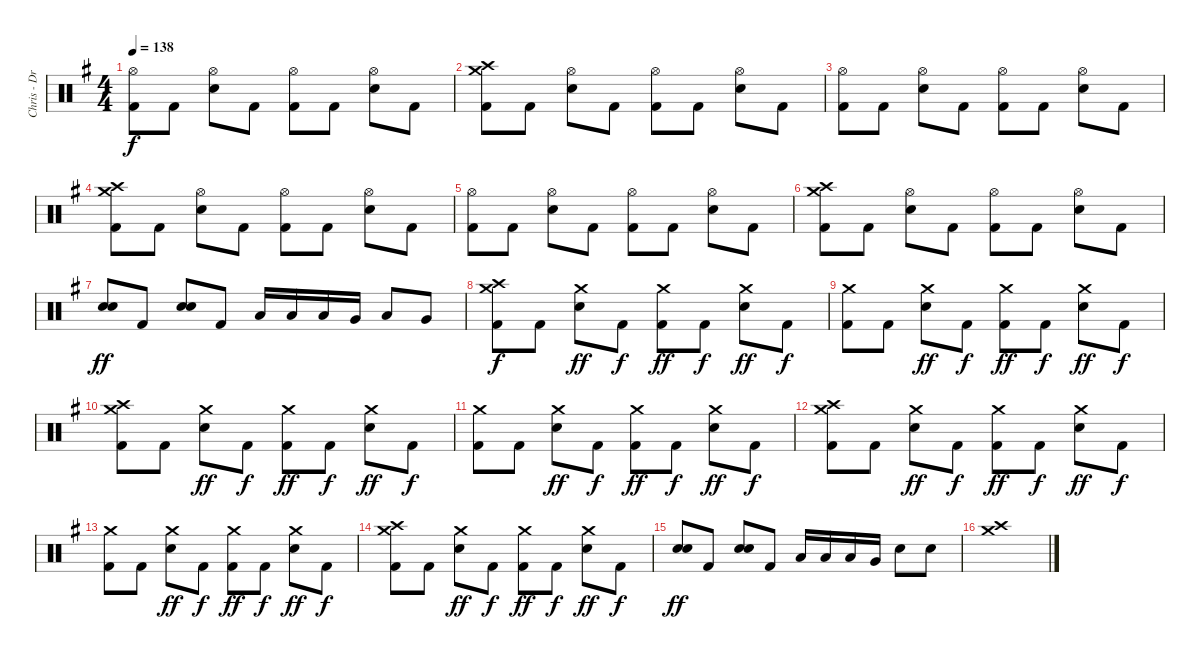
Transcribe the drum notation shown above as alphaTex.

\track ("Chris - Drums" "Chris - Dr") {instrument percussion}
\staff {score}
\articulation defaults
\ts (4 4)
\tempo 138
\clef neutral
\ks g
("Hi-Hat (open)" "Kick (hit) 2").8{dy f} "Kick (hit) 2".8 ("Hi-Hat (open)" "Electric Snare (hit)").8 "Kick (hit) 2".8 ("Hi-Hat (open)" "Kick (hit) 2").8 "Kick (hit) 2".8 ("Hi-Hat (open)" "Electric Snare (hit)").8 "Kick (hit) 2".8 |
("Crash medium (hit)" "Crash high (hit)" "Kick (hit) 2").8 "Kick (hit) 2".8 ("Hi-Hat (open)" "Electric Snare (hit)").8 "Kick (hit) 2".8 ("Hi-Hat (open)" "Kick (hit) 2").8 "Kick (hit) 2".8 ("Hi-Hat (open)" "Electric Snare (hit)").8 "Kick (hit) 2".8 |
("Hi-Hat (open)" "Kick (hit) 2").8 "Kick (hit) 2".8 ("Hi-Hat (open)" "Electric Snare (hit)").8 "Kick (hit) 2".8 ("Hi-Hat (open)" "Kick (hit) 2").8 "Kick (hit) 2".8 ("Hi-Hat (open)" "Electric Snare (hit)").8 "Kick (hit) 2".8 |
("Crash medium (hit)" "Crash high (hit)" "Kick (hit) 2").8 "Kick (hit) 2".8 ("Hi-Hat (open)" "Electric Snare (hit)").8 "Kick (hit) 2".8 ("Hi-Hat (open)" "Kick (hit) 2").8 "Kick (hit) 2".8 ("Hi-Hat (open)" "Electric Snare (hit)").8 "Kick (hit) 2".8 |
("Hi-Hat (open)" "Kick (hit) 2").8 "Kick (hit) 2".8 ("Hi-Hat (open)" "Electric Snare (hit)").8 "Kick (hit) 2".8 ("Hi-Hat (open)" "Kick (hit) 2").8 "Kick (hit) 2".8 ("Hi-Hat (open)" "Electric Snare (hit)").8 "Kick (hit) 2".8 |
("Crash medium (hit)" "Crash high (hit)" "Kick (hit) 2").8 "Kick (hit) 2".8 ("Hi-Hat (open)" "Electric Snare (hit)").8 "Kick (hit) 2".8 ("Hi-Hat (open)" "Kick (hit) 2").8 "Kick (hit) 2".8 ("Hi-Hat (open)" "Electric Snare (hit)").8 "Kick (hit) 2".8 |
("Snare (hit) 2" "Electric Snare (hit)").8{dy ff} "Kick (hit) 2".8 ("Snare (hit) 2" "Electric Snare (hit)").8 "Kick (hit) 2".8 "Low Tom (hit)".16 "Low Tom (hit)".16 "Low Tom (hit)".16 "Very Low Tom (hit)".16 "Low Tom (hit)".8 "Very Low Tom (hit)".8 |
("Crash medium (hit)" "Crash high (hit)" "Kick (hit) 2").8{dy f} "Kick (hit) 2".8 ("Crash medium (hit)" "Electric Snare (hit)").8{dy ff} "Kick (hit) 2".8{dy f} ("Crash medium (hit)" "Kick (hit) 2").8{dy ff} "Kick (hit) 2".8{dy f} ("Crash medium (hit)" "Electric Snare (hit)").8{dy ff} "Kick (hit) 2".8{dy f} |
("Crash medium (hit)" "Kick (hit) 2").8 "Kick (hit) 2".8 ("Crash medium (hit)" "Electric Snare (hit)").8{dy ff} "Kick (hit) 2".8{dy f} ("Crash medium (hit)" "Kick (hit) 2").8{dy ff} "Kick (hit) 2".8{dy f} ("Crash medium (hit)" "Electric Snare (hit)").8{dy ff} "Kick (hit) 2".8{dy f} |
("Crash medium (hit)" "Crash high (hit)" "Kick (hit) 2").8 "Kick (hit) 2".8 ("Crash medium (hit)" "Electric Snare (hit)").8{dy ff} "Kick (hit) 2".8{dy f} ("Crash medium (hit)" "Kick (hit) 2").8{dy ff} "Kick (hit) 2".8{dy f} ("Crash medium (hit)" "Electric Snare (hit)").8{dy ff} "Kick (hit) 2".8{dy f} |
("Crash medium (hit)" "Kick (hit) 2").8 "Kick (hit) 2".8 ("Crash medium (hit)" "Electric Snare (hit)").8{dy ff} "Kick (hit) 2".8{dy f} ("Crash medium (hit)" "Kick (hit) 2").8{dy ff} "Kick (hit) 2".8{dy f} ("Crash medium (hit)" "Electric Snare (hit)").8{dy ff} "Kick (hit) 2".8{dy f} |
("Crash medium (hit)" "Crash high (hit)" "Kick (hit) 2").8 "Kick (hit) 2".8 ("Crash medium (hit)" "Electric Snare (hit)").8{dy ff} "Kick (hit) 2".8{dy f} ("Crash medium (hit)" "Kick (hit) 2").8{dy ff} "Kick (hit) 2".8{dy f} ("Crash medium (hit)" "Electric Snare (hit)").8{dy ff} "Kick (hit) 2".8{dy f} |
("Crash medium (hit)" "Kick (hit) 2").8 "Kick (hit) 2".8 ("Crash medium (hit)" "Electric Snare (hit)").8{dy ff} "Kick (hit) 2".8{dy f} ("Crash medium (hit)" "Kick (hit) 2").8{dy ff} "Kick (hit) 2".8{dy f} ("Crash medium (hit)" "Electric Snare (hit)").8{dy ff} "Kick (hit) 2".8{dy f} |
("Crash medium (hit)" "Crash high (hit)" "Kick (hit) 2").8 "Kick (hit) 2".8 ("Crash medium (hit)" "Electric Snare (hit)").8{dy ff} "Kick (hit) 2".8{dy f} ("Crash medium (hit)" "Kick (hit) 2").8{dy ff} "Kick (hit) 2".8{dy f} ("Crash medium (hit)" "Electric Snare (hit)").8{dy ff} "Kick (hit) 2".8{dy f} |
("Snare (hit) 2" "Electric Snare (hit)").8{dy ff} "Kick (hit) 2".8 ("Snare (hit) 2" "Electric Snare (hit)").8 "Kick (hit) 2".8 "Low Tom (hit)".16 "Low Tom (hit)".16 "Low Tom (hit)".16 "Very Low Tom (hit)".16 "Electric Snare (hit)".8 "Electric Snare (hit)".8 |
("Crash medium (hit)" "Crash high (hit)").1
